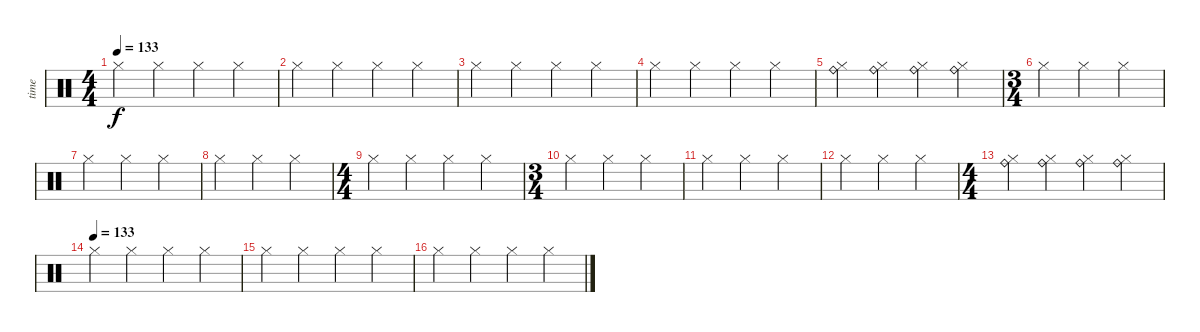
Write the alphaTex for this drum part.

\track ("time" "time") {instrument percussion}
\staff {score}
\articulation defaults
\ts (4 4)
\tempo 133
\clef neutral
\ks c "Hi-Hat (closed)".4{dy f} "Hi-Hat (closed)".4 "Hi-Hat (closed)".4 "Hi-Hat (closed)".4
|
"Hi-Hat (closed)".4 "Hi-Hat (closed)".4 "Hi-Hat (closed)".4 "Hi-Hat (closed)".4 |
"Hi-Hat (closed)".4 "Hi-Hat (closed)".4 "Hi-Hat (closed)".4 "Hi-Hat (closed)".4 |
"Hi-Hat (closed)".4 "Hi-Hat (closed)".4 "Hi-Hat (closed)".4 "Hi-Hat (closed)".4 |
("Ride (bell)" "Hi-Hat (closed)").4 ("Ride (bell)" "Hi-Hat (closed)").4 ("Ride (bell)" "Hi-Hat (closed)").4 ("Ride (bell)" "Hi-Hat (closed)").4 |
\ts (3 4)
"Hi-Hat (closed)".4 "Hi-Hat (closed)".4 "Hi-Hat (closed)".4 |
"Hi-Hat (closed)".4 "Hi-Hat (closed)".4 "Hi-Hat (closed)".4 |
"Hi-Hat (closed)".4 "Hi-Hat (closed)".4 "Hi-Hat (closed)".4 |
\ts (4 4)
"Hi-Hat (closed)".4 "Hi-Hat (closed)".4 "Hi-Hat (closed)".4 "Hi-Hat (closed)".4 |
\ts (3 4)
"Hi-Hat (closed)".4 "Hi-Hat (closed)".4 "Hi-Hat (closed)".4 |
"Hi-Hat (closed)".4 "Hi-Hat (closed)".4 "Hi-Hat (closed)".4 |
"Hi-Hat (closed)".4 "Hi-Hat (closed)".4 "Hi-Hat (closed)".4 |
\ts (4 4)
("Ride (bell)" "Hi-Hat (closed)").4 ("Ride (bell)" "Hi-Hat (closed)").4 ("Ride (bell)" "Hi-Hat (closed)").4 ("Ride (bell)" "Hi-Hat (closed)").4 |
\tempo (133)
"Hi-Hat (closed)".4 "Hi-Hat (closed)".4 "Hi-Hat (closed)".4 "Hi-Hat (closed)".4 |
"Hi-Hat (closed)".4 "Hi-Hat (closed)".4 "Hi-Hat (closed)".4 "Hi-Hat (closed)".4 |
"Hi-Hat (closed)".4 "Hi-Hat (closed)".4 "Hi-Hat (closed)".4 "Hi-Hat (closed)".4
